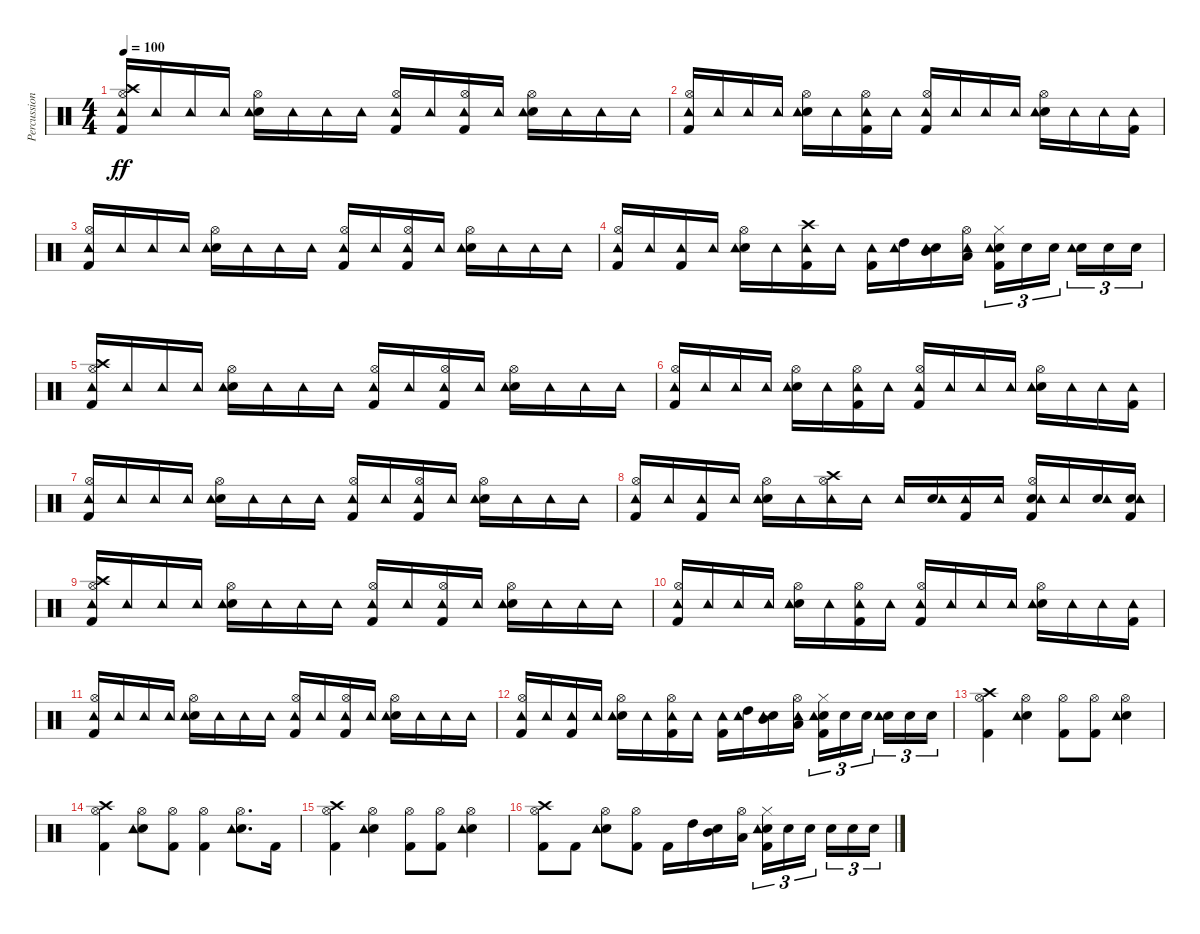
\track ("Percussions" "Percussion") {instrument percussion}
\staff {score}
\articulation defaults
\ts (4 4)
\tempo 100
\clef neutral
\ks c
("Kick (hit) 2" "Hi-Hat (open)" "Crash high (hit)" "Tambourine (hit)").16{dy ff} "Tambourine (hit)".16 "Tambourine (hit)".16 "Tambourine (hit)".16 ("Snare (hit) 2" "Hi-Hat (open)" "Tambourine (hit)").16 "Tambourine (hit)".16 "Tambourine (hit)".16 "Tambourine (hit)".16 ("Kick (hit) 2" "Hi-Hat (open)" "Tambourine (hit)").16 "Tambourine (hit)".16 ("Kick (hit) 2" "Hi-Hat (open)" "Tambourine (hit)").16 "Tambourine (hit)".16 ("Snare (hit) 2" "Hi-Hat (open)" "Tambourine (hit)").16 "Tambourine (hit)".16 "Tambourine (hit)".16 "Tambourine (hit)".16 |
("Kick (hit) 2" "Hi-Hat (open)" "Tambourine (hit)").16 "Tambourine (hit)".16 "Tambourine (hit)".16 "Tambourine (hit)".16 ("Snare (hit) 2" "Hi-Hat (open)" "Tambourine (hit)").16 "Tambourine (hit)".16 ("Kick (hit) 2" "Hi-Hat (open)" "Tambourine (hit)").16 "Tambourine (hit)".16 ("Kick (hit) 2" "Hi-Hat (open)" "Tambourine (hit)").16 "Tambourine (hit)".16 "Tambourine (hit)".16 "Tambourine (hit)".16 ("Snare (hit) 2" "Hi-Hat (open)" "Tambourine (hit)").16 "Tambourine (hit)".16 "Tambourine (hit)".16 ("Kick (hit) 2" "Tambourine (hit)").16 |
("Kick (hit) 2" "Hi-Hat (open)" "Tambourine (hit)").16 "Tambourine (hit)".16 "Tambourine (hit)".16 "Tambourine (hit)".16 ("Snare (hit) 2" "Hi-Hat (open)" "Tambourine (hit)").16 "Tambourine (hit)".16 "Tambourine (hit)".16 "Tambourine (hit)".16 ("Kick (hit) 2" "Hi-Hat (open)" "Tambourine (hit)").16 "Tambourine (hit)".16 ("Kick (hit) 2" "Hi-Hat (open)" "Tambourine (hit)").16 "Tambourine (hit)".16 ("Snare (hit) 2" "Hi-Hat (open)" "Tambourine (hit)").16 "Tambourine (hit)".16 "Tambourine (hit)".16 "Tambourine (hit)".16 |
("Kick (hit) 2" "Hi-Hat (open)" "Tambourine (hit)").16 "Tambourine (hit)".16 ("Kick (hit) 2" "Tambourine (hit)").16 "Tambourine (hit)".16 ("Snare (hit) 2" "Hi-Hat (open)" "Tambourine (hit)").16 "Tambourine (hit)".16 ("Kick (hit) 2" "Crash high (hit)" "Tambourine (hit)").16 "Tambourine (hit)".16 ("Kick (hit) 2" "Tambourine (hit)").16 ("High Tom (hit)" "Tambourine (hit)").16 ("Snare (hit) 2" "Mid Tom (hit)" "Tambourine (hit)").16 ("Low Tom (hit)" "Hi-Hat (open)" "Tambourine (hit)").16 ("Kick (hit) 2" "Snare (hit) 2" "Hi-Hat (closed)" "Tambourine (hit)").16{tu (3 2)} "Snare (hit) 2".16{tu (3 2)} "Snare (hit) 2".16{tu (3 2)} ("Snare (hit) 2" "Tambourine (hit)").16{tu (3 2)} "Snare (hit) 2".16{tu (3 2)} "Snare (hit) 2".16{tu (3 2)} |
("Kick (hit) 2" "Hi-Hat (open)" "Crash high (hit)" "Tambourine (hit)").16 "Tambourine (hit)".16 "Tambourine (hit)".16 "Tambourine (hit)".16 ("Snare (hit) 2" "Hi-Hat (open)" "Tambourine (hit)").16 "Tambourine (hit)".16 "Tambourine (hit)".16 "Tambourine (hit)".16 ("Kick (hit) 2" "Hi-Hat (open)" "Tambourine (hit)").16 "Tambourine (hit)".16 ("Kick (hit) 2" "Hi-Hat (open)" "Tambourine (hit)").16 "Tambourine (hit)".16 ("Snare (hit) 2" "Hi-Hat (open)" "Tambourine (hit)").16 "Tambourine (hit)".16 "Tambourine (hit)".16 "Tambourine (hit)".16 |
("Kick (hit) 2" "Hi-Hat (open)" "Tambourine (hit)").16 "Tambourine (hit)".16 "Tambourine (hit)".16 "Tambourine (hit)".16 ("Snare (hit) 2" "Hi-Hat (open)" "Tambourine (hit)").16 "Tambourine (hit)".16 ("Kick (hit) 2" "Hi-Hat (open)" "Tambourine (hit)").16 "Tambourine (hit)".16 ("Kick (hit) 2" "Hi-Hat (open)" "Tambourine (hit)").16 "Tambourine (hit)".16 "Tambourine (hit)".16 "Tambourine (hit)".16 ("Snare (hit) 2" "Hi-Hat (open)" "Tambourine (hit)").16 "Tambourine (hit)".16 "Tambourine (hit)".16 ("Kick (hit) 2" "Tambourine (hit)").16 |
("Kick (hit) 2" "Hi-Hat (open)" "Tambourine (hit)").16 "Tambourine (hit)".16 "Tambourine (hit)".16 "Tambourine (hit)".16 ("Snare (hit) 2" "Hi-Hat (open)" "Tambourine (hit)").16 "Tambourine (hit)".16 "Tambourine (hit)".16 "Tambourine (hit)".16 ("Kick (hit) 2" "Hi-Hat (open)" "Tambourine (hit)").16 "Tambourine (hit)".16 ("Kick (hit) 2" "Hi-Hat (open)" "Tambourine (hit)").16 "Tambourine (hit)".16 ("Snare (hit) 2" "Hi-Hat (open)" "Tambourine (hit)").16 "Tambourine (hit)".16 "Tambourine (hit)".16 "Tambourine (hit)".16 |
("Kick (hit) 2" "Hi-Hat (open)" "Tambourine (hit)").16 "Tambourine (hit)".16 ("Kick (hit) 2" "Tambourine (hit)").16 "Tambourine (hit)".16 ("Snare (hit) 2" "Hi-Hat (open)" "Tambourine (hit)").16 "Tambourine (hit)".16 ("Hi-Hat (open)" "Crash high (hit)" "Tambourine (hit)").16 "Tambourine (hit)".16 "Tambourine (hit)".16 ("Snare (hit) 2" "Tambourine (hit)").16 ("Kick (hit) 2" "Tambourine (hit)").16 "Tambourine (hit)".16 ("Kick (hit) 2" "Snare (hit) 2" "Hi-Hat (open)" "Tambourine (hit)").16 "Tambourine (hit)".16 ("Snare (hit) 2" "Tambourine (hit)").16 ("Kick (hit) 2" "Snare (hit) 2" "Tambourine (hit)").16 |
("Kick (hit) 2" "Hi-Hat (open)" "Crash high (hit)" "Tambourine (hit)").16 "Tambourine (hit)".16 "Tambourine (hit)".16 "Tambourine (hit)".16 ("Snare (hit) 2" "Hi-Hat (open)" "Tambourine (hit)").16 "Tambourine (hit)".16 "Tambourine (hit)".16 "Tambourine (hit)".16 ("Kick (hit) 2" "Hi-Hat (open)" "Tambourine (hit)").16 "Tambourine (hit)".16 ("Kick (hit) 2" "Hi-Hat (open)" "Tambourine (hit)").16 "Tambourine (hit)".16 ("Snare (hit) 2" "Hi-Hat (open)" "Tambourine (hit)").16 "Tambourine (hit)".16 "Tambourine (hit)".16 "Tambourine (hit)".16 |
("Kick (hit) 2" "Hi-Hat (open)" "Tambourine (hit)").16 "Tambourine (hit)".16 "Tambourine (hit)".16 "Tambourine (hit)".16 ("Snare (hit) 2" "Hi-Hat (open)" "Tambourine (hit)").16 "Tambourine (hit)".16 ("Kick (hit) 2" "Hi-Hat (open)" "Tambourine (hit)").16 "Tambourine (hit)".16 ("Kick (hit) 2" "Hi-Hat (open)" "Tambourine (hit)").16 "Tambourine (hit)".16 "Tambourine (hit)".16 "Tambourine (hit)".16 ("Snare (hit) 2" "Hi-Hat (open)" "Tambourine (hit)").16 "Tambourine (hit)".16 "Tambourine (hit)".16 ("Kick (hit) 2" "Tambourine (hit)").16 |
("Kick (hit) 2" "Hi-Hat (open)" "Tambourine (hit)").16 "Tambourine (hit)".16 "Tambourine (hit)".16 "Tambourine (hit)".16 ("Snare (hit) 2" "Hi-Hat (open)" "Tambourine (hit)").16 "Tambourine (hit)".16 "Tambourine (hit)".16 "Tambourine (hit)".16 ("Kick (hit) 2" "Hi-Hat (open)" "Tambourine (hit)").16 "Tambourine (hit)".16 ("Kick (hit) 2" "Hi-Hat (open)" "Tambourine (hit)").16 "Tambourine (hit)".16 ("Snare (hit) 2" "Hi-Hat (open)" "Tambourine (hit)").16 "Tambourine (hit)".16 "Tambourine (hit)".16 "Tambourine (hit)".16 |
("Kick (hit) 2" "Hi-Hat (open)" "Tambourine (hit)").16 "Tambourine (hit)".16 ("Kick (hit) 2" "Tambourine (hit)").16 "Tambourine (hit)".16 ("Snare (hit) 2" "Hi-Hat (open)" "Tambourine (hit)").16 "Tambourine (hit)".16 ("Kick (hit) 2" "Hi-Hat (open)" "Tambourine (hit)").16 "Tambourine (hit)".16 ("Kick (hit) 2" "Tambourine (hit)").16 ("High Tom (hit)" "Tambourine (hit)").16 ("Snare (hit) 2" "Mid Tom (hit)" "Tambourine (hit)").16 ("Low Tom (hit)" "Hi-Hat (open)" "Tambourine (hit)").16 ("Kick (hit) 2" "Snare (hit) 2" "Hi-Hat (closed)" "Tambourine (hit)").16{tu (3 2)} "Snare (hit) 2".16{tu (3 2)} "Snare (hit) 2".16{tu (3 2)} ("Snare (hit) 2" "Tambourine (hit)").16{tu (3 2)} "Snare (hit) 2".16{tu (3 2)} "Snare (hit) 2".16{tu (3 2)} |
("Kick (hit) 2" "Hi-Hat (open)" "Crash high (hit)").4 ("Snare (hit) 2" "Hi-Hat (open)" "Tambourine (hit)").4 ("Kick (hit) 2" "Hi-Hat (open)").8 ("Kick (hit) 2" "Hi-Hat (open)").8 ("Snare (hit) 2" "Hi-Hat (open)" "Tambourine (hit)").4 |
("Kick (hit) 2" "Hi-Hat (open)" "Crash high (hit)").4 ("Snare (hit) 2" "Hi-Hat (open)" "Tambourine (hit)").8 ("Kick (hit) 2" "Hi-Hat (open)").8 ("Kick (hit) 2" "Hi-Hat (open)").4 ("Snare (hit) 2" "Hi-Hat (open)" "Tambourine (hit)").8{d} "Kick (hit) 2".16 |
("Kick (hit) 2" "Hi-Hat (open)" "Crash high (hit)").4 ("Snare (hit) 2" "Hi-Hat (open)" "Tambourine (hit)").4 ("Kick (hit) 2" "Hi-Hat (open)").8 ("Kick (hit) 2" "Hi-Hat (open)").8 ("Snare (hit) 2" "Hi-Hat (open)" "Tambourine (hit)").4 |
("Kick (hit) 2" "Hi-Hat (open)" "Crash high (hit)").8 "Kick (hit) 2".8 ("Snare (hit) 2" "Hi-Hat (open)" "Tambourine (hit)").8 ("Kick (hit) 2" "Hi-Hat (open)").8 "Kick (hit) 2".16 "High Tom (hit)".16 ("Snare (hit) 2" "Mid Tom (hit)").16 ("Low Tom (hit)" "Hi-Hat (open)").16 ("Kick (hit) 2" "Snare (hit) 2" "Hi-Hat (closed)" "Tambourine (hit)").16{tu (3 2)} "Snare (hit) 2".16{tu (3 2)} "Snare (hit) 2".16{tu (3 2)} "Snare (hit) 2".16{tu (3 2)} "Snare (hit) 2".16{tu (3 2)} "Snare (hit) 2".16{tu (3 2)}
